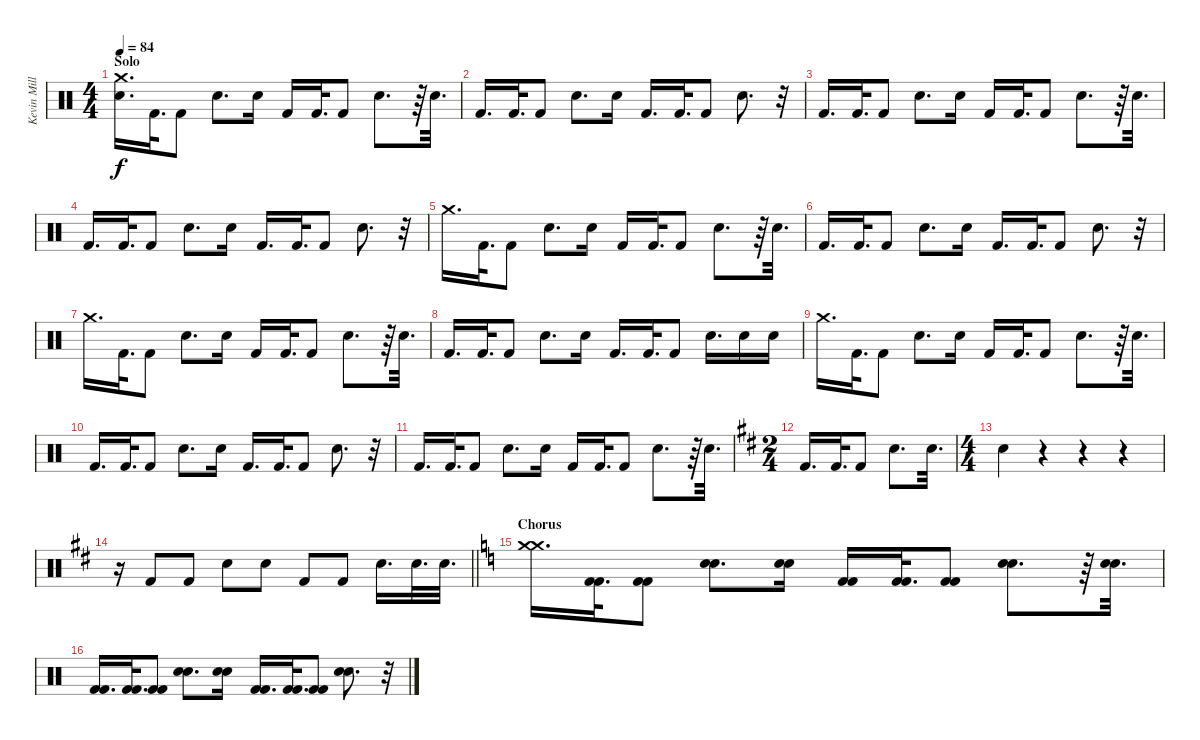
\track ("Kevin Miller (Drums)" "Kevin Mill") {instrument percussion}
\staff {score}
\articulation defaults
\ts (4 4)
\section ("" "Solo")
\tempo 84
\clef neutral
\ks c
("Crash medium (hit)" "Electric Snare (hit)").16{d dy f} "Kick (hit) 2".32{d} "Kick (hit) 2".8 "Electric Snare (hit)".8{d} "Electric Snare (hit)".16 "Kick (hit) 2".16 "Kick (hit) 2".32{d} "Kick (hit) 2".8 "Electric Snare (hit)".8{d} r.64 "Electric Snare (hit)".32{d} |
"Kick (hit) 2".16{d} "Kick (hit) 2".32{d} "Kick (hit) 2".8 "Electric Snare (hit)".8{d} "Electric Snare (hit)".16 "Kick (hit) 2".16{d} "Kick (hit) 2".32{d} "Kick (hit) 2".8 "Electric Snare (hit)".8{d} r.32 |
"Kick (hit) 2".16{d} "Kick (hit) 2".32{d} "Kick (hit) 2".8 "Electric Snare (hit)".8{d} "Electric Snare (hit)".16 "Kick (hit) 2".16 "Kick (hit) 2".32{d} "Kick (hit) 2".8 "Electric Snare (hit)".8{d} r.64 "Electric Snare (hit)".32{d} |
"Kick (hit) 2".16{d} "Kick (hit) 2".32{d} "Kick (hit) 2".8 "Electric Snare (hit)".8{d} "Electric Snare (hit)".16 "Kick (hit) 2".16{d} "Kick (hit) 2".32{d} "Kick (hit) 2".8 "Electric Snare (hit)".8{d} r.32 |
"Crash medium (hit)".16{d} "Kick (hit) 2".32{d} "Kick (hit) 2".8 "Electric Snare (hit)".8{d} "Electric Snare (hit)".16 "Kick (hit) 2".16 "Kick (hit) 2".32{d} "Kick (hit) 2".8 "Electric Snare (hit)".8{d} r.64 "Electric Snare (hit)".32{d} |
"Kick (hit) 2".16{d} "Kick (hit) 2".32{d} "Kick (hit) 2".8 "Electric Snare (hit)".8{d} "Electric Snare (hit)".16 "Kick (hit) 2".16{d} "Kick (hit) 2".32{d} "Kick (hit) 2".8 "Electric Snare (hit)".8{d} r.32 |
"Crash medium (hit)".16{d} "Kick (hit) 2".32{d} "Kick (hit) 2".8 "Electric Snare (hit)".8{d} "Electric Snare (hit)".16 "Kick (hit) 2".16 "Kick (hit) 2".32{d} "Kick (hit) 2".8 "Electric Snare (hit)".8{d} r.64 "Electric Snare (hit)".32{d} |
"Kick (hit) 2".16{d} "Kick (hit) 2".32{d} "Kick (hit) 2".8 "Electric Snare (hit)".8{d} "Electric Snare (hit)".16 "Kick (hit) 2".16{d} "Kick (hit) 2".32{d} "Kick (hit) 2".8 "Electric Snare (hit)".16{d} "Electric Snare (hit)".16 "Electric Snare (hit)".16 |
"Crash medium (hit)".16{d} "Kick (hit) 2".32{d} "Kick (hit) 2".8 "Electric Snare (hit)".8{d} "Electric Snare (hit)".16 "Kick (hit) 2".16 "Kick (hit) 2".32{d} "Kick (hit) 2".8 "Electric Snare (hit)".8{d} r.64 "Electric Snare (hit)".32{d} |
"Kick (hit) 2".16{d} "Kick (hit) 2".32{d} "Kick (hit) 2".8 "Electric Snare (hit)".8{d} "Electric Snare (hit)".16 "Kick (hit) 2".16{d} "Kick (hit) 2".32{d} "Kick (hit) 2".8 "Electric Snare (hit)".8{d} r.32 |
"Kick (hit) 2".16{d} "Kick (hit) 2".32{d} "Kick (hit) 2".8 "Electric Snare (hit)".8{d} "Electric Snare (hit)".16 "Kick (hit) 2".16 "Kick (hit) 2".32{d} "Kick (hit) 2".8 "Electric Snare (hit)".8{d} r.64 "Electric Snare (hit)".32{d} |
\ts (2 4)
\ks d "Kick (hit) 2".16{d} "Kick (hit) 2".32{d} "Kick (hit) 2".8 "Electric Snare (hit)".8{d} "Electric Snare (hit)".32{d}
|
\ts (4 4)
"Electric Snare (hit)".4 r.4 r.4 r.4 |
\barLineRight lightlight
r.16 "Kick (hit) 2".8 "Kick (hit) 2".8 "Electric Snare (hit)".8 "Electric Snare (hit)".8 "Kick (hit) 2".8 "Kick (hit) 2".8 "Electric Snare (hit)".16{d} "Electric Snare (hit)".32{d} "Electric Snare (hit)".32{d} |
\section ("" "Chorus")
\ks c
("Crash medium (hit)" "Crash medium (hit)").16{d} ("Kick (hit) 2" "Kick (hit) 2").32{d} ("Kick (hit) 2" "Kick (hit) 2").8 ("Electric Snare (hit)" "Electric Snare (hit)").8{d} ("Electric Snare (hit)" "Electric Snare (hit)").16 ("Kick (hit) 2" "Kick (hit) 2").16 ("Kick (hit) 2" "Kick (hit) 2").32{d} ("Kick (hit) 2" "Kick (hit) 2").8 ("Electric Snare (hit)" "Electric Snare (hit)").8{d} r.64 ("Electric Snare (hit)" "Electric Snare (hit)").32{d} |
("Kick (hit) 2" "Kick (hit) 2").16{d} ("Kick (hit) 2" "Kick (hit) 2").32{d} ("Kick (hit) 2" "Kick (hit) 2").8 ("Electric Snare (hit)" "Electric Snare (hit)").8{d} ("Electric Snare (hit)" "Electric Snare (hit)").16 ("Kick (hit) 2" "Kick (hit) 2").16{d} ("Kick (hit) 2" "Kick (hit) 2").32{d} ("Kick (hit) 2" "Kick (hit) 2").8 ("Electric Snare (hit)" "Electric Snare (hit)").8{d} r.32
